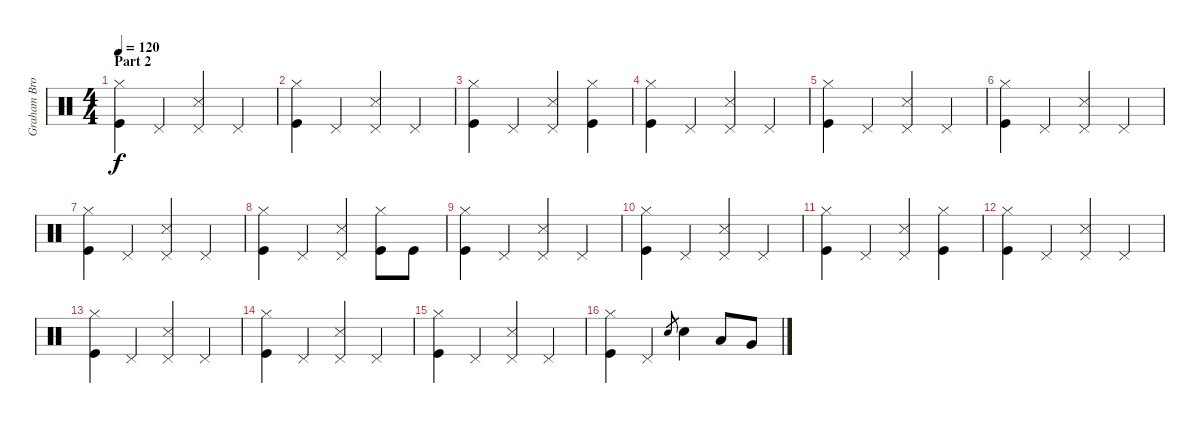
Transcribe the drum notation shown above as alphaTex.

\track ("Graham Broad (Drums)" "Graham Bro") {instrument percussion}
\staff {score}
\articulation defaults
\ts (4 4)
\section ("" "Part 2")
\tempo 120
\clef neutral
\ks c
("Hi-Hat (closed)" "Kick (hit)").4{dy f} "Pedal Hi-Hat (hit)".4 ("Pedal Hi-Hat (hit)" "Snare (side stick) 3").4 "Pedal Hi-Hat (hit)".4 |
("Hi-Hat (closed)" "Kick (hit)").4 "Pedal Hi-Hat (hit)".4 ("Pedal Hi-Hat (hit)" "Snare (side stick) 3").4 "Pedal Hi-Hat (hit)".4 |
("Hi-Hat (closed)" "Kick (hit)").4 "Pedal Hi-Hat (hit)".4 ("Pedal Hi-Hat (hit)" "Snare (side stick) 3").4 ("Hi-Hat (closed)" "Kick (hit)").4 |
("Hi-Hat (closed)" "Kick (hit)").4 "Pedal Hi-Hat (hit)".4 ("Pedal Hi-Hat (hit)" "Snare (side stick) 3").4 "Pedal Hi-Hat (hit)".4 |
("Hi-Hat (closed)" "Kick (hit)").4 "Pedal Hi-Hat (hit)".4 ("Pedal Hi-Hat (hit)" "Snare (side stick) 3").4 "Pedal Hi-Hat (hit)".4 |
("Hi-Hat (closed)" "Kick (hit)").4 "Pedal Hi-Hat (hit)".4 ("Pedal Hi-Hat (hit)" "Snare (side stick) 3").4 "Pedal Hi-Hat (hit)".4 |
("Hi-Hat (closed)" "Kick (hit)").4 "Pedal Hi-Hat (hit)".4 ("Pedal Hi-Hat (hit)" "Snare (side stick) 3").4 "Pedal Hi-Hat (hit)".4 |
("Hi-Hat (closed)" "Kick (hit)").4 "Pedal Hi-Hat (hit)".4 ("Pedal Hi-Hat (hit)" "Snare (side stick) 3").4 ("Hi-Hat (closed)" "Kick (hit)").8 "Kick (hit)".8 |
("Hi-Hat (closed)" "Kick (hit)").4 "Pedal Hi-Hat (hit)".4 ("Pedal Hi-Hat (hit)" "Snare (side stick) 3").4 "Pedal Hi-Hat (hit)".4 |
("Hi-Hat (closed)" "Kick (hit)").4 "Pedal Hi-Hat (hit)".4 ("Pedal Hi-Hat (hit)" "Snare (side stick) 3").4 "Pedal Hi-Hat (hit)".4 |
("Hi-Hat (closed)" "Kick (hit)").4 "Pedal Hi-Hat (hit)".4 ("Pedal Hi-Hat (hit)" "Snare (side stick) 3").4 ("Hi-Hat (closed)" "Kick (hit)").4 |
("Hi-Hat (closed)" "Kick (hit)").4 "Pedal Hi-Hat (hit)".4 ("Pedal Hi-Hat (hit)" "Snare (side stick) 3").4 "Pedal Hi-Hat (hit)".4 |
("Hi-Hat (closed)" "Kick (hit)").4 "Pedal Hi-Hat (hit)".4 ("Pedal Hi-Hat (hit)" "Snare (side stick) 3").4 "Pedal Hi-Hat (hit)".4 |
("Hi-Hat (closed)" "Kick (hit)").4 "Pedal Hi-Hat (hit)".4 ("Pedal Hi-Hat (hit)" "Snare (side stick) 3").4 "Pedal Hi-Hat (hit)".4 |
("Hi-Hat (closed)" "Kick (hit)").4 "Pedal Hi-Hat (hit)".4 ("Pedal Hi-Hat (hit)" "Snare (side stick) 3").4 "Pedal Hi-Hat (hit)".4 |
("Hi-Hat (closed)" "Kick (hit)").4 "Pedal Hi-Hat (hit)".4 "Snare (hit) 2".8{gr} "Snare (hit) 2".4 "Low Tom (hit)".8 "Very Low Tom (hit)".8
